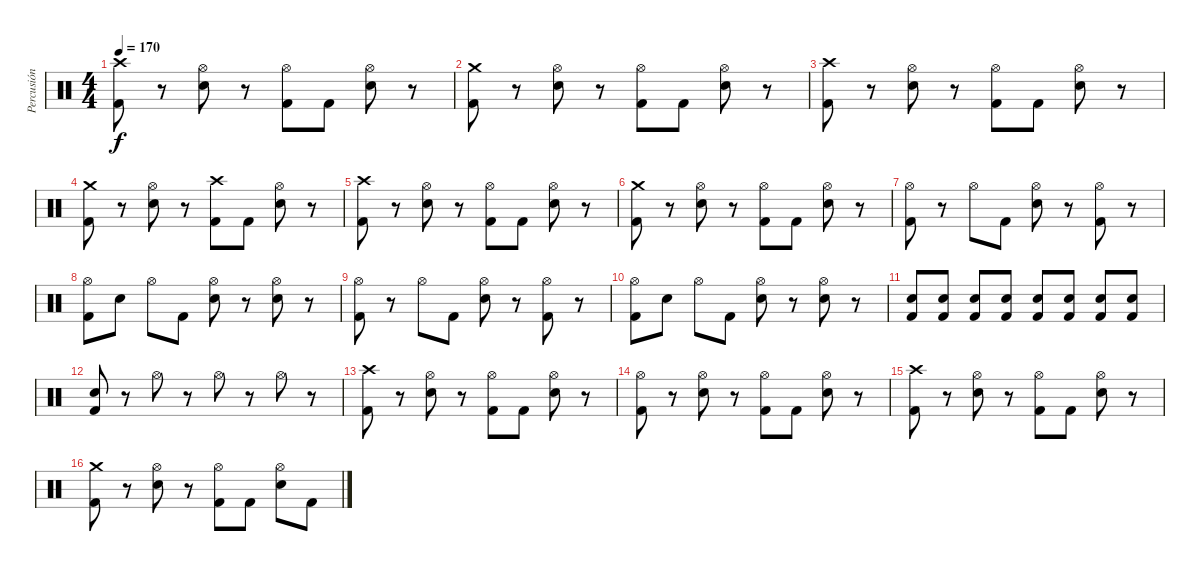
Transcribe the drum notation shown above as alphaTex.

\track ("Percusión" "Percusión") {instrument percussion}
\staff {score}
\articulation defaults
\ts (4 4)
\tempo 170
\clef neutral
\ks c
("Crash high (hit)" "Kick (hit) 2").8{dy f} r.8 ("Hi-Hat (open)" "Electric Snare (hit)").8 r.8 ("Hi-Hat (open)" "Kick (hit) 2").8 "Kick (hit) 2".8 ("Hi-Hat (open)" "Electric Snare (hit)").8 r.8 |
("Crash medium (hit)" "Kick (hit) 2").8 r.8 ("Hi-Hat (open)" "Electric Snare (hit)").8 r.8 ("Hi-Hat (open)" "Kick (hit) 2").8 "Kick (hit) 2".8 ("Hi-Hat (open)" "Electric Snare (hit)").8 r.8 |
("Crash high (hit)" "Kick (hit) 2").8 r.8 ("Hi-Hat (open)" "Electric Snare (hit)").8 r.8 ("Hi-Hat (open)" "Kick (hit) 2").8 "Kick (hit) 2".8 ("Hi-Hat (open)" "Electric Snare (hit)").8 r.8 |
("Crash medium (hit)" "Kick (hit) 2").8 r.8 ("Hi-Hat (open)" "Electric Snare (hit)").8 r.8 ("Crash high (hit)" "Kick (hit) 2").8 "Kick (hit) 2".8 ("Hi-Hat (open)" "Electric Snare (hit)").8 r.8 |
("Crash high (hit)" "Kick (hit) 2").8 r.8 ("Hi-Hat (open)" "Electric Snare (hit)").8 r.8 ("Hi-Hat (open)" "Kick (hit) 2").8 "Kick (hit) 2".8 ("Hi-Hat (open)" "Electric Snare (hit)").8 r.8 |
("Crash medium (hit)" "Kick (hit) 2").8 r.8 ("Hi-Hat (open)" "Electric Snare (hit)").8 r.8 ("Hi-Hat (open)" "Kick (hit) 2").8 "Kick (hit) 2".8 ("Hi-Hat (open)" "Electric Snare (hit)").8 r.8 |
("Hi-Hat (open)" "Kick (hit) 2").8 r.8 "Hi-Hat (open)".8 "Kick (hit) 2".8 ("Hi-Hat (open)" "Electric Snare (hit)").8 r.8 ("Hi-Hat (open)" "Kick (hit) 2").8 r.8 |
("Hi-Hat (open)" "Kick (hit) 2").8 "Electric Snare (hit)".8 "Hi-Hat (open)".8 "Kick (hit) 2".8 ("Hi-Hat (open)" "Electric Snare (hit)").8 r.8 ("Hi-Hat (open)" "Electric Snare (hit)").8 r.8 |
("Hi-Hat (open)" "Kick (hit) 2").8 r.8 "Hi-Hat (open)".8 "Kick (hit) 2".8 ("Hi-Hat (open)" "Electric Snare (hit)").8 r.8 ("Hi-Hat (open)" "Kick (hit) 2").8 r.8 |
("Hi-Hat (open)" "Kick (hit) 2").8 "Electric Snare (hit)".8 "Hi-Hat (open)".8 "Kick (hit) 2".8 ("Hi-Hat (open)" "Electric Snare (hit)").8 r.8 ("Hi-Hat (open)" "Electric Snare (hit)").8 r.8 |
("Kick (hit) 2" "Electric Snare (hit)").8 ("Kick (hit) 2" "Electric Snare (hit)").8 ("Kick (hit) 2" "Electric Snare (hit)").8 ("Kick (hit) 2" "Electric Snare (hit)").8 ("Kick (hit) 2" "Electric Snare (hit)").8 ("Kick (hit) 2" "Electric Snare (hit)").8 ("Kick (hit) 2" "Electric Snare (hit)").8 ("Kick (hit) 2" "Electric Snare (hit)").8 |
("Kick (hit) 2" "Electric Snare (hit)").8 r.8 "Hi-Hat (open)".8 r.8 "Hi-Hat (open)".8 r.8 "Hi-Hat (open)".8 r.8 |
("Crash high (hit)" "Kick (hit) 2").8 r.8 ("Hi-Hat (open)" "Electric Snare (hit)").8 r.8 ("Hi-Hat (open)" "Kick (hit) 2").8 "Kick (hit) 2".8 ("Hi-Hat (open)" "Electric Snare (hit)").8 r.8 |
("Hi-Hat (open)" "Kick (hit) 2").8 r.8 ("Hi-Hat (open)" "Electric Snare (hit)").8 r.8 ("Hi-Hat (open)" "Kick (hit) 2").8 "Kick (hit) 2".8 ("Hi-Hat (open)" "Electric Snare (hit)").8 r.8 |
("Crash high (hit)" "Kick (hit) 2").8 r.8 ("Hi-Hat (open)" "Electric Snare (hit)").8 r.8 ("Hi-Hat (open)" "Kick (hit) 2").8 "Kick (hit) 2".8 ("Hi-Hat (open)" "Electric Snare (hit)").8 r.8 |
("Crash medium (hit)" "Kick (hit) 2").8 r.8 ("Hi-Hat (open)" "Electric Snare (hit)").8 r.8 ("Hi-Hat (open)" "Kick (hit) 2").8 "Kick (hit) 2".8 ("Hi-Hat (open)" "Electric Snare (hit)").8 "Kick (hit) 2".8
